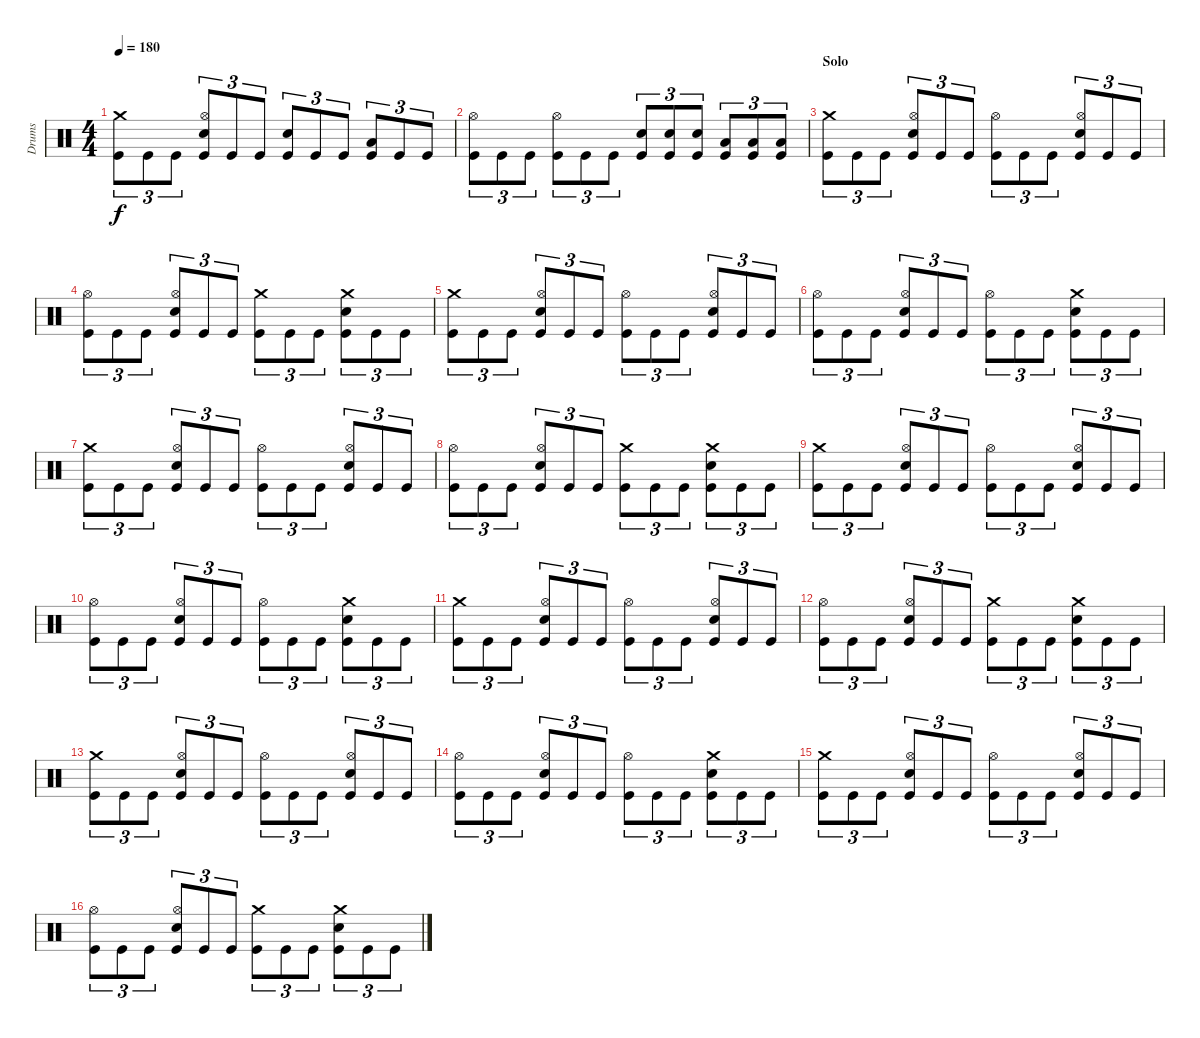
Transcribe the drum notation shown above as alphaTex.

\track ("Drums" "Drums") {instrument percussion}
\staff {score}
\articulation defaults
\ts (4 4)
\tempo 180
\clef neutral
\ks c
("Crash medium (hit)" "Kick (hit)").8{tu (3 2) dy f} "Kick (hit)".8{tu (3 2)} "Kick (hit)".8{tu (3 2)} ("Hi-Hat (open)" "Electric Snare (hit)" "Kick (hit)").8{tu (3 2)} "Kick (hit)".8{tu (3 2)} "Kick (hit)".8{tu (3 2)} ("Electric Snare (hit)" "Kick (hit)").8{tu (3 2)} "Kick (hit)".8{tu (3 2)} "Kick (hit)".8{tu (3 2)} ("Low Tom (hit)" "Kick (hit)").8{tu (3 2)} "Kick (hit)".8{tu (3 2)} "Kick (hit)".8{tu (3 2)} |
("Hi-Hat (open)" "Kick (hit)").8{tu (3 2)} "Kick (hit)".8{tu (3 2)} "Kick (hit)".8{tu (3 2)} ("Hi-Hat (open)" "Kick (hit)").8{tu (3 2)} "Kick (hit)".8{tu (3 2)} "Kick (hit)".8{tu (3 2)} ("Electric Snare (hit)" "Kick (hit)").8{tu (3 2)} ("Electric Snare (hit)" "Kick (hit)").8{tu (3 2)} ("Electric Snare (hit)" "Kick (hit)").8{tu (3 2)} ("Low Tom (hit)" "Kick (hit)").8{tu (3 2)} ("Low Tom (hit)" "Kick (hit)").8{tu (3 2)} ("Low Tom (hit)" "Kick (hit)").8{tu (3 2)} |
\section ("" "Solo")
("Crash medium (hit)" "Kick (hit)").8{tu (3 2)} "Kick (hit)".8{tu (3 2)} "Kick (hit)".8{tu (3 2)} ("Hi-Hat (open)" "Electric Snare (hit)" "Kick (hit)").8{tu (3 2)} "Kick (hit)".8{tu (3 2)} "Kick (hit)".8{tu (3 2)} ("Hi-Hat (open)" "Kick (hit)").8{tu (3 2)} "Kick (hit)".8{tu (3 2)} "Kick (hit)".8{tu (3 2)} ("Hi-Hat (open)" "Electric Snare (hit)" "Kick (hit)").8{tu (3 2)} "Kick (hit)".8{tu (3 2)} "Kick (hit)".8{tu (3 2)} |
("Hi-Hat (open)" "Kick (hit)").8{tu (3 2)} "Kick (hit)".8{tu (3 2)} "Kick (hit)".8{tu (3 2)} ("Hi-Hat (open)" "Electric Snare (hit)" "Kick (hit)").8{tu (3 2)} "Kick (hit)".8{tu (3 2)} "Kick (hit)".8{tu (3 2)} ("Crash medium (hit)" "Kick (hit)").8{tu (3 2)} "Kick (hit)".8{tu (3 2)} "Kick (hit)".8{tu (3 2)} ("Crash medium (hit)" "Electric Snare (hit)" "Kick (hit)").8{tu (3 2)} "Kick (hit)".8{tu (3 2)} "Kick (hit)".8{tu (3 2)} |
("Crash medium (hit)" "Kick (hit)").8{tu (3 2)} "Kick (hit)".8{tu (3 2)} "Kick (hit)".8{tu (3 2)} ("Hi-Hat (open)" "Electric Snare (hit)" "Kick (hit)").8{tu (3 2)} "Kick (hit)".8{tu (3 2)} "Kick (hit)".8{tu (3 2)} ("Hi-Hat (open)" "Kick (hit)").8{tu (3 2)} "Kick (hit)".8{tu (3 2)} "Kick (hit)".8{tu (3 2)} ("Hi-Hat (open)" "Electric Snare (hit)" "Kick (hit)").8{tu (3 2)} "Kick (hit)".8{tu (3 2)} "Kick (hit)".8{tu (3 2)} |
("Hi-Hat (open)" "Kick (hit)").8{tu (3 2)} "Kick (hit)".8{tu (3 2)} "Kick (hit)".8{tu (3 2)} ("Hi-Hat (open)" "Electric Snare (hit)" "Kick (hit)").8{tu (3 2)} "Kick (hit)".8{tu (3 2)} "Kick (hit)".8{tu (3 2)} ("Hi-Hat (open)" "Kick (hit)").8{tu (3 2)} "Kick (hit)".8{tu (3 2)} "Kick (hit)".8{tu (3 2)} ("Crash medium (hit)" "Electric Snare (hit)" "Kick (hit)").8{tu (3 2)} "Kick (hit)".8{tu (3 2)} "Kick (hit)".8{tu (3 2)} |
("Crash medium (hit)" "Kick (hit)").8{tu (3 2)} "Kick (hit)".8{tu (3 2)} "Kick (hit)".8{tu (3 2)} ("Hi-Hat (open)" "Electric Snare (hit)" "Kick (hit)").8{tu (3 2)} "Kick (hit)".8{tu (3 2)} "Kick (hit)".8{tu (3 2)} ("Hi-Hat (open)" "Kick (hit)").8{tu (3 2)} "Kick (hit)".8{tu (3 2)} "Kick (hit)".8{tu (3 2)} ("Hi-Hat (open)" "Electric Snare (hit)" "Kick (hit)").8{tu (3 2)} "Kick (hit)".8{tu (3 2)} "Kick (hit)".8{tu (3 2)} |
("Hi-Hat (open)" "Kick (hit)").8{tu (3 2)} "Kick (hit)".8{tu (3 2)} "Kick (hit)".8{tu (3 2)} ("Hi-Hat (open)" "Electric Snare (hit)" "Kick (hit)").8{tu (3 2)} "Kick (hit)".8{tu (3 2)} "Kick (hit)".8{tu (3 2)} ("Crash medium (hit)" "Kick (hit)").8{tu (3 2)} "Kick (hit)".8{tu (3 2)} "Kick (hit)".8{tu (3 2)} ("Crash medium (hit)" "Electric Snare (hit)" "Kick (hit)").8{tu (3 2)} "Kick (hit)".8{tu (3 2)} "Kick (hit)".8{tu (3 2)} |
("Crash medium (hit)" "Kick (hit)").8{tu (3 2)} "Kick (hit)".8{tu (3 2)} "Kick (hit)".8{tu (3 2)} ("Hi-Hat (open)" "Electric Snare (hit)" "Kick (hit)").8{tu (3 2)} "Kick (hit)".8{tu (3 2)} "Kick (hit)".8{tu (3 2)} ("Hi-Hat (open)" "Kick (hit)").8{tu (3 2)} "Kick (hit)".8{tu (3 2)} "Kick (hit)".8{tu (3 2)} ("Hi-Hat (open)" "Electric Snare (hit)" "Kick (hit)").8{tu (3 2)} "Kick (hit)".8{tu (3 2)} "Kick (hit)".8{tu (3 2)} |
("Hi-Hat (open)" "Kick (hit)").8{tu (3 2)} "Kick (hit)".8{tu (3 2)} "Kick (hit)".8{tu (3 2)} ("Hi-Hat (open)" "Electric Snare (hit)" "Kick (hit)").8{tu (3 2)} "Kick (hit)".8{tu (3 2)} "Kick (hit)".8{tu (3 2)} ("Hi-Hat (open)" "Kick (hit)").8{tu (3 2)} "Kick (hit)".8{tu (3 2)} "Kick (hit)".8{tu (3 2)} ("Crash medium (hit)" "Electric Snare (hit)" "Kick (hit)").8{tu (3 2)} "Kick (hit)".8{tu (3 2)} "Kick (hit)".8{tu (3 2)} |
("Crash medium (hit)" "Kick (hit)").8{tu (3 2)} "Kick (hit)".8{tu (3 2)} "Kick (hit)".8{tu (3 2)} ("Hi-Hat (open)" "Electric Snare (hit)" "Kick (hit)").8{tu (3 2)} "Kick (hit)".8{tu (3 2)} "Kick (hit)".8{tu (3 2)} ("Hi-Hat (open)" "Kick (hit)").8{tu (3 2)} "Kick (hit)".8{tu (3 2)} "Kick (hit)".8{tu (3 2)} ("Hi-Hat (open)" "Electric Snare (hit)" "Kick (hit)").8{tu (3 2)} "Kick (hit)".8{tu (3 2)} "Kick (hit)".8{tu (3 2)} |
("Hi-Hat (open)" "Kick (hit)").8{tu (3 2)} "Kick (hit)".8{tu (3 2)} "Kick (hit)".8{tu (3 2)} ("Hi-Hat (open)" "Electric Snare (hit)" "Kick (hit)").8{tu (3 2)} "Kick (hit)".8{tu (3 2)} "Kick (hit)".8{tu (3 2)} ("Crash medium (hit)" "Kick (hit)").8{tu (3 2)} "Kick (hit)".8{tu (3 2)} "Kick (hit)".8{tu (3 2)} ("Crash medium (hit)" "Electric Snare (hit)" "Kick (hit)").8{tu (3 2)} "Kick (hit)".8{tu (3 2)} "Kick (hit)".8{tu (3 2)} |
("Crash medium (hit)" "Kick (hit)").8{tu (3 2)} "Kick (hit)".8{tu (3 2)} "Kick (hit)".8{tu (3 2)} ("Hi-Hat (open)" "Electric Snare (hit)" "Kick (hit)").8{tu (3 2)} "Kick (hit)".8{tu (3 2)} "Kick (hit)".8{tu (3 2)} ("Hi-Hat (open)" "Kick (hit)").8{tu (3 2)} "Kick (hit)".8{tu (3 2)} "Kick (hit)".8{tu (3 2)} ("Hi-Hat (open)" "Electric Snare (hit)" "Kick (hit)").8{tu (3 2)} "Kick (hit)".8{tu (3 2)} "Kick (hit)".8{tu (3 2)} |
("Hi-Hat (open)" "Kick (hit)").8{tu (3 2)} "Kick (hit)".8{tu (3 2)} "Kick (hit)".8{tu (3 2)} ("Hi-Hat (open)" "Electric Snare (hit)" "Kick (hit)").8{tu (3 2)} "Kick (hit)".8{tu (3 2)} "Kick (hit)".8{tu (3 2)} ("Hi-Hat (open)" "Kick (hit)").8{tu (3 2)} "Kick (hit)".8{tu (3 2)} "Kick (hit)".8{tu (3 2)} ("Crash medium (hit)" "Electric Snare (hit)" "Kick (hit)").8{tu (3 2)} "Kick (hit)".8{tu (3 2)} "Kick (hit)".8{tu (3 2)} |
("Crash medium (hit)" "Kick (hit)").8{tu (3 2)} "Kick (hit)".8{tu (3 2)} "Kick (hit)".8{tu (3 2)} ("Hi-Hat (open)" "Electric Snare (hit)" "Kick (hit)").8{tu (3 2)} "Kick (hit)".8{tu (3 2)} "Kick (hit)".8{tu (3 2)} ("Hi-Hat (open)" "Kick (hit)").8{tu (3 2)} "Kick (hit)".8{tu (3 2)} "Kick (hit)".8{tu (3 2)} ("Hi-Hat (open)" "Electric Snare (hit)" "Kick (hit)").8{tu (3 2)} "Kick (hit)".8{tu (3 2)} "Kick (hit)".8{tu (3 2)} |
("Hi-Hat (open)" "Kick (hit)").8{tu (3 2)} "Kick (hit)".8{tu (3 2)} "Kick (hit)".8{tu (3 2)} ("Hi-Hat (open)" "Electric Snare (hit)" "Kick (hit)").8{tu (3 2)} "Kick (hit)".8{tu (3 2)} "Kick (hit)".8{tu (3 2)} ("Crash medium (hit)" "Kick (hit)").8{tu (3 2)} "Kick (hit)".8{tu (3 2)} "Kick (hit)".8{tu (3 2)} ("Crash medium (hit)" "Electric Snare (hit)" "Kick (hit)").8{tu (3 2)} "Kick (hit)".8{tu (3 2)} "Kick (hit)".8{tu (3 2)}
